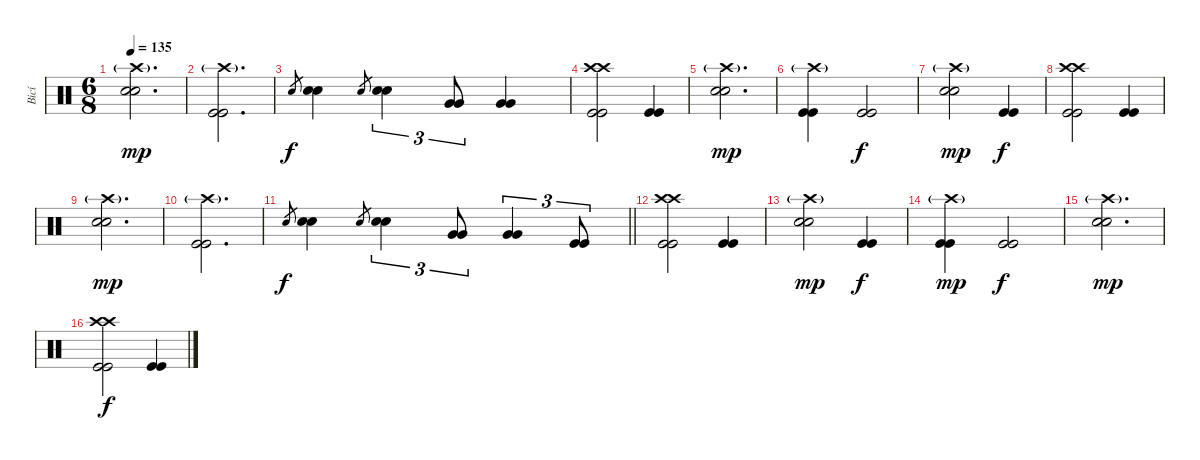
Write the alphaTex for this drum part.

\track ("Bicí" "Bicí") {instrument percussion}
\staff {score}
\articulation defaults
\ts (6 8)
\tempo 135
\clef neutral
\ks c
("Crash high (hit)"{g} "Electric Snare (hit)" "Electric Snare (hit)").2{d dy mp} |
("Crash high (hit)"{g} "Kick (hit)" "Kick (hit)").2{d} |
"Electric Snare (hit)".8{gr dy f} ("Electric Snare (hit)" "Electric Snare (hit)").4 "Electric Snare (hit)".8{gr} ("Electric Snare (hit)" "Electric Snare (hit)").4{tu (3 2)} ("Very Low Tom (hit)" "Very Low Tom (hit)").8{tu (3 2)} ("Very Low Tom (hit)" "Very Low Tom (hit)").4 |
("Crash high (hit)" "Crash high (hit)" "Kick (hit)" "Kick (hit)").2 ("Kick (hit)" "Kick (hit)").4 |
("Crash high (hit)"{g} "Electric Snare (hit)" "Electric Snare (hit)").2{d dy mp} |
("Crash high (hit)"{g} "Kick (hit)" "Kick (hit)").4 ("Kick (hit)" "Kick (hit)").2{dy f} |
("Crash high (hit)"{g} "Electric Snare (hit)" "Electric Snare (hit)").2{dy mp} ("Kick (hit)" "Kick (hit)").4{dy f} |
("Crash high (hit)" "Crash high (hit)" "Kick (hit)" "Kick (hit)").2 ("Kick (hit)" "Kick (hit)").4 |
("Crash high (hit)"{g} "Electric Snare (hit)" "Electric Snare (hit)").2{d dy mp} |
("Crash high (hit)"{g} "Kick (hit)" "Kick (hit)").2{d} |
\barLineRight lightlight "Electric Snare (hit)".8{gr dy f}
("Electric Snare (hit)" "Electric Snare (hit)").4 "Electric Snare (hit)".8{gr} ("Electric Snare (hit)" "Electric Snare (hit)").4{tu (3 2)} ("Very Low Tom (hit)" "Very Low Tom (hit)").8{tu (3 2)} ("Very Low Tom (hit)" "Very Low Tom (hit)").4{tu (3 2)} ("Kick (hit)" "Kick (hit)").8{tu (3 2)} |
\section ("" "")
("Crash high (hit)" "Crash high (hit)" "Kick (hit)" "Kick (hit)").2 ("Kick (hit)" "Kick (hit)").4 |
("Crash high (hit)"{g} "Electric Snare (hit)" "Electric Snare (hit)").2{dy mp} ("Kick (hit)" "Kick (hit)").4{dy f} |
("Crash high (hit)"{g} "Kick (hit)" "Kick (hit)").4{dy mp} ("Kick (hit)" "Kick (hit)").2{dy f} |
("Crash high (hit)"{g} "Electric Snare (hit)" "Electric Snare (hit)").2{d dy mp} |
("Crash high (hit)" "Crash high (hit)" "Kick (hit)" "Kick (hit)").2{dy f} ("Kick (hit)" "Kick (hit)").4
